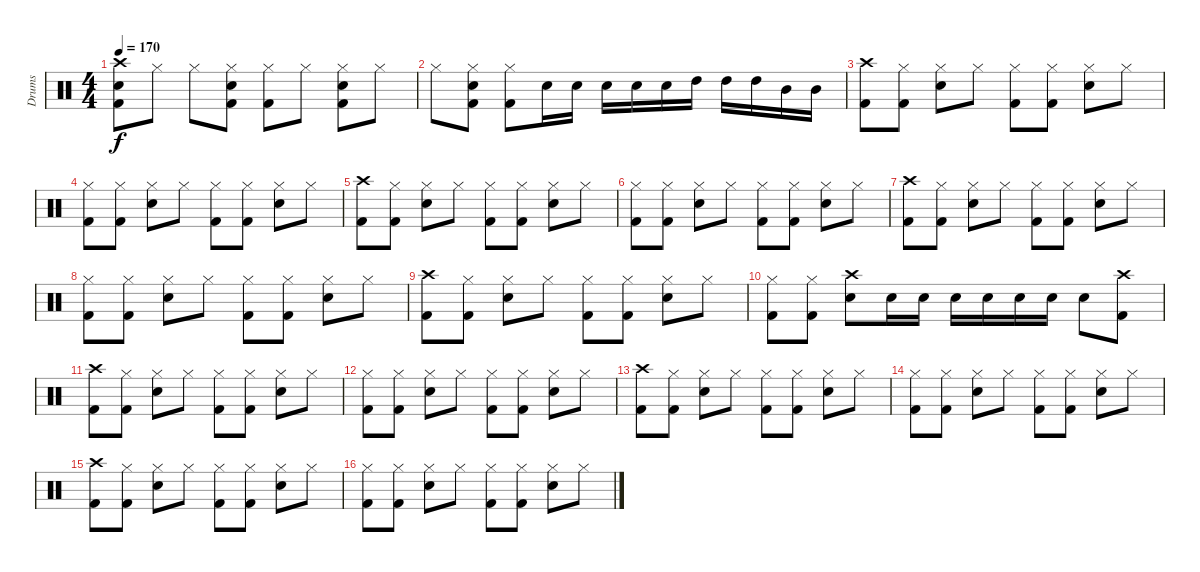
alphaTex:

\track ("Drums" "Drums") {instrument percussion}
\staff {score}
\articulation defaults
\ts (4 4)
\tempo 170
\clef neutral
\ks c
("Crash high (hit)" "Electric Snare (hit)" "Kick (hit) 2").8{dy f} "Hi-Hat (closed)".8 "Hi-Hat (closed)".8 ("Hi-Hat (closed)" "Electric Snare (hit)" "Kick (hit) 2").8 ("Hi-Hat (closed)" "Kick (hit) 2").8 "Hi-Hat (closed)".8 ("Hi-Hat (closed)" "Electric Snare (hit)" "Kick (hit) 2").8 "Hi-Hat (closed)".8 |
"Hi-Hat (closed)".8 ("Hi-Hat (closed)" "Electric Snare (hit)" "Kick (hit) 2").8 ("Hi-Hat (closed)" "Kick (hit) 2").8 "Electric Snare (hit)".16 "Electric Snare (hit)".16 "Electric Snare (hit)".16 "Electric Snare (hit)".16 "Electric Snare (hit)".16 "High Tom (hit)".16 "High Tom (hit)".16 "High Tom (hit)".16 "Mid Tom (hit)".16 "Mid Tom (hit)".16 |
("Crash high (hit)" "Kick (hit) 2").8 ("Hi-Hat (closed)" "Kick (hit) 2").8 ("Hi-Hat (closed)" "Electric Snare (hit)").8 "Hi-Hat (closed)".8 ("Hi-Hat (closed)" "Kick (hit) 2").8 ("Hi-Hat (closed)" "Kick (hit) 2").8 ("Hi-Hat (closed)" "Electric Snare (hit)").8 "Hi-Hat (closed)".8 |
("Hi-Hat (closed)" "Kick (hit) 2").8 ("Hi-Hat (closed)" "Kick (hit) 2").8 ("Hi-Hat (closed)" "Electric Snare (hit)").8 "Hi-Hat (closed)".8 ("Hi-Hat (closed)" "Kick (hit) 2").8 ("Hi-Hat (closed)" "Kick (hit) 2").8 ("Hi-Hat (closed)" "Electric Snare (hit)").8 "Hi-Hat (closed)".8 |
("Crash high (hit)" "Kick (hit) 2").8 ("Hi-Hat (closed)" "Kick (hit) 2").8 ("Hi-Hat (closed)" "Electric Snare (hit)").8 "Hi-Hat (closed)".8 ("Hi-Hat (closed)" "Kick (hit) 2").8 ("Hi-Hat (closed)" "Kick (hit) 2").8 ("Hi-Hat (closed)" "Electric Snare (hit)").8 "Hi-Hat (closed)".8 |
("Hi-Hat (closed)" "Kick (hit) 2").8 ("Hi-Hat (closed)" "Kick (hit) 2").8 ("Hi-Hat (closed)" "Electric Snare (hit)").8 "Hi-Hat (closed)".8 ("Hi-Hat (closed)" "Kick (hit) 2").8 ("Hi-Hat (closed)" "Kick (hit) 2").8 ("Hi-Hat (closed)" "Electric Snare (hit)").8 "Hi-Hat (closed)".8 |
("Crash high (hit)" "Kick (hit) 2").8 ("Hi-Hat (closed)" "Kick (hit) 2").8 ("Hi-Hat (closed)" "Electric Snare (hit)").8 "Hi-Hat (closed)".8 ("Hi-Hat (closed)" "Kick (hit) 2").8 ("Hi-Hat (closed)" "Kick (hit) 2").8 ("Hi-Hat (closed)" "Electric Snare (hit)").8 "Hi-Hat (closed)".8 |
("Hi-Hat (closed)" "Kick (hit) 2").8 ("Hi-Hat (closed)" "Kick (hit) 2").8 ("Hi-Hat (closed)" "Electric Snare (hit)").8 "Hi-Hat (closed)".8 ("Hi-Hat (closed)" "Kick (hit) 2").8 ("Hi-Hat (closed)" "Kick (hit) 2").8 ("Hi-Hat (closed)" "Electric Snare (hit)").8 "Hi-Hat (closed)".8 |
("Crash high (hit)" "Kick (hit) 2").8 ("Hi-Hat (closed)" "Kick (hit) 2").8 ("Hi-Hat (closed)" "Electric Snare (hit)").8 "Hi-Hat (closed)".8 ("Hi-Hat (closed)" "Kick (hit) 2").8 ("Hi-Hat (closed)" "Kick (hit) 2").8 ("Hi-Hat (closed)" "Electric Snare (hit)").8 "Hi-Hat (closed)".8 |
("Hi-Hat (closed)" "Kick (hit) 2").8 ("Hi-Hat (closed)" "Kick (hit) 2").8 ("Crash high (hit)" "Electric Snare (hit)").8 "Electric Snare (hit)".16 "Electric Snare (hit)".16 "Electric Snare (hit)".16 "Electric Snare (hit)".16 "Electric Snare (hit)".16 "Electric Snare (hit)".16 "Electric Snare (hit)".8 ("Crash high (hit)" "Kick (hit) 2").8 |
("Crash high (hit)" "Kick (hit) 2").8 ("Hi-Hat (closed)" "Kick (hit) 2").8 ("Hi-Hat (closed)" "Electric Snare (hit)").8 "Hi-Hat (closed)".8 ("Hi-Hat (closed)" "Kick (hit) 2").8 ("Hi-Hat (closed)" "Kick (hit) 2").8 ("Hi-Hat (closed)" "Electric Snare (hit)").8 "Hi-Hat (closed)".8 |
("Hi-Hat (closed)" "Kick (hit) 2").8 ("Hi-Hat (closed)" "Kick (hit) 2").8 ("Hi-Hat (closed)" "Electric Snare (hit)").8 "Hi-Hat (closed)".8 ("Hi-Hat (closed)" "Kick (hit) 2").8 ("Hi-Hat (closed)" "Kick (hit) 2").8 ("Hi-Hat (closed)" "Electric Snare (hit)").8 "Hi-Hat (closed)".8 |
("Crash high (hit)" "Kick (hit) 2").8 ("Hi-Hat (closed)" "Kick (hit) 2").8 ("Hi-Hat (closed)" "Electric Snare (hit)").8 "Hi-Hat (closed)".8 ("Hi-Hat (closed)" "Kick (hit) 2").8 ("Hi-Hat (closed)" "Kick (hit) 2").8 ("Hi-Hat (closed)" "Electric Snare (hit)").8 "Hi-Hat (closed)".8 |
("Hi-Hat (closed)" "Kick (hit) 2").8 ("Hi-Hat (closed)" "Kick (hit) 2").8 ("Hi-Hat (closed)" "Electric Snare (hit)").8 "Hi-Hat (closed)".8 ("Hi-Hat (closed)" "Kick (hit) 2").8 ("Hi-Hat (closed)" "Kick (hit) 2").8 ("Hi-Hat (closed)" "Electric Snare (hit)").8 "Hi-Hat (closed)".8 |
("Crash high (hit)" "Kick (hit) 2").8{volume 12} ("Hi-Hat (closed)" "Kick (hit) 2").8 ("Hi-Hat (closed)" "Electric Snare (hit)").8 "Hi-Hat (closed)".8 ("Hi-Hat (closed)" "Kick (hit) 2").8 ("Hi-Hat (closed)" "Kick (hit) 2").8 ("Hi-Hat (closed)" "Electric Snare (hit)").8 "Hi-Hat (closed)".8 |
("Hi-Hat (closed)" "Kick (hit) 2").8 ("Hi-Hat (closed)" "Kick (hit) 2").8 ("Hi-Hat (closed)" "Electric Snare (hit)").8 "Hi-Hat (closed)".8 ("Hi-Hat (closed)" "Kick (hit) 2").8 ("Hi-Hat (closed)" "Kick (hit) 2").8 ("Hi-Hat (closed)" "Electric Snare (hit)").8 "Hi-Hat (closed)".8
